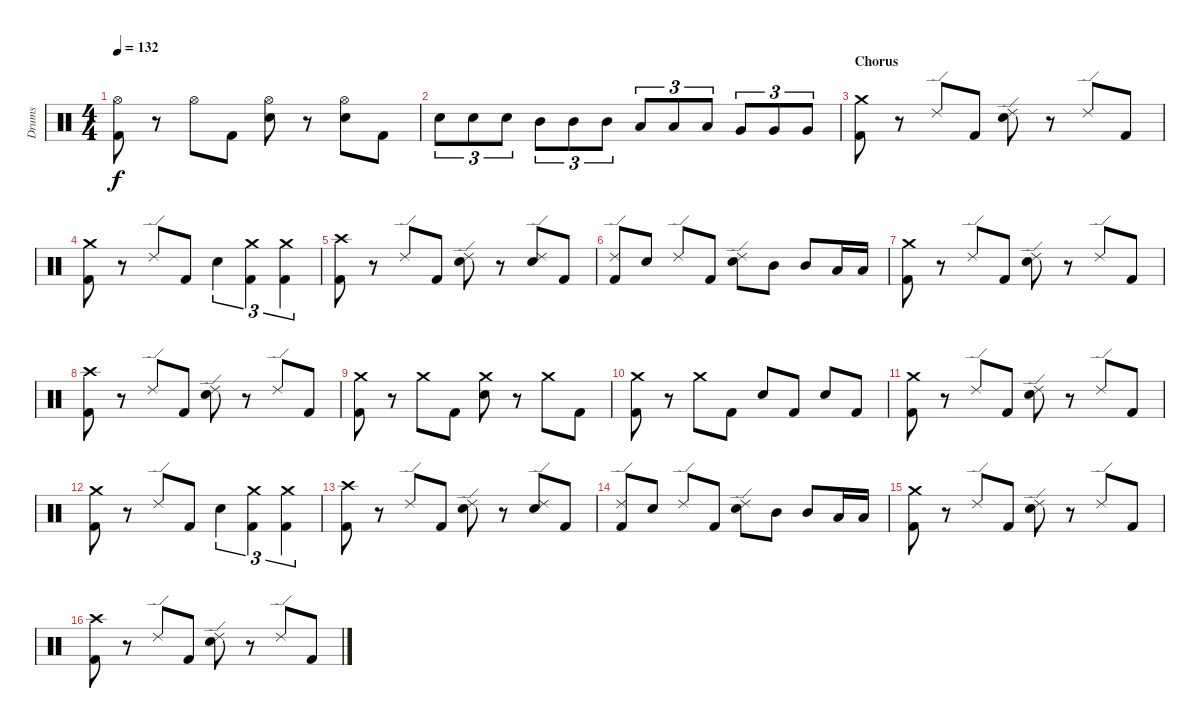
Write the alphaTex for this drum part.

\track ("Drums" "Drums") {instrument percussion}
\staff {score}
\articulation defaults
\ts (4 4)
\tempo 132
\clef neutral
\ks c
("Hi-Hat (open)" "Kick (hit) 2").8{dy f} r.8 "Hi-Hat (open)".8 "Kick (hit) 2".8 ("Hi-Hat (open)" "Snare (hit) 2").8 r.8 ("Hi-Hat (open)" "Snare (hit) 2").8 "Kick (hit) 2".8 |
"Snare (hit) 2".8{tu (3 2)} "Snare (hit) 2".8{tu (3 2)} "Snare (hit) 2".8{tu (3 2)} "Mid Tom (hit)".8{tu (3 2)} "Mid Tom (hit)".8{tu (3 2)} "Mid Tom (hit)".8{tu (3 2)} "Low Tom (hit)".8{tu (3 2)} "Low Tom (hit)".8{tu (3 2)} "Low Tom (hit)".8{tu (3 2)} "Very Low Tom (hit)".8{tu (3 2)} "Very Low Tom (hit)".8{tu (3 2)} "Very Low Tom (hit)".8{tu (3 2)} |
\section ("" "Chorus")
("Crash medium (hit)" "Kick (hit) 2").8 r.8 "Ride (edge) 2".8 "Kick (hit) 2".8 ("Ride (edge) 2" "Snare (hit) 2").8 r.8 "Ride (edge) 2".8 "Kick (hit) 2".8 |
("Crash medium (hit)" "Kick (hit) 2").8 r.8 "Ride (edge) 2".8 "Kick (hit) 2".8 "Snare (hit) 2".4{tu (3 2)} ("Crash medium (hit)" "Kick (hit) 2").4{tu (3 2)} ("Crash medium (hit)" "Kick (hit) 2").4{tu (3 2)} |
("Crash high (hit)" "Kick (hit) 2").8 r.8 "Ride (edge) 2".8 "Kick (hit) 2".8 ("Ride (edge) 2" "Snare (hit) 2").8 r.8 ("Ride (edge) 2" "Snare (hit) 2").8 "Kick (hit) 2".8 |
("Ride (edge) 2" "Kick (hit) 2").8 "Snare (hit) 2".8 "Ride (edge) 2".8 "Kick (hit) 2".8 ("Ride (edge) 2" "Snare (hit) 2").8 "Mid Tom (hit)".8 "Mid Tom (hit)".8 "Low Tom (hit)".16 "Low Tom (hit)".16 |
("Crash medium (hit)" "Kick (hit) 2").8 r.8 "Ride (edge) 2".8 "Kick (hit) 2".8 ("Ride (edge) 2" "Snare (hit) 2").8 r.8 "Ride (edge) 2".8 "Kick (hit) 2".8 |
("Crash high (hit)" "Kick (hit) 2").8 r.8 "Ride (edge) 2".8 "Kick (hit) 2".8 ("Ride (edge) 2" "Snare (hit) 2").8 r.8 "Ride (edge) 2".8 "Kick (hit) 2".8 |
("Crash medium (hit)" "Kick (hit) 2").8 r.8 "Crash medium (hit)".8 "Kick (hit) 2".8 ("Crash medium (hit)" "Snare (hit) 2").8 r.8 "Crash medium (hit)".8 "Kick (hit) 2".8 |
("Crash medium (hit)" "Kick (hit) 2").8 r.8 "Crash medium (hit)".8 "Kick (hit) 2".8 "Snare (hit) 2".8 "Kick (hit) 2".8 "Snare (hit) 2".8 "Kick (hit) 2".8 |
("Crash medium (hit)" "Kick (hit) 2").8 r.8 "Ride (edge) 2".8 "Kick (hit) 2".8 ("Ride (edge) 2" "Snare (hit) 2").8 r.8 "Ride (edge) 2".8 "Kick (hit) 2".8 |
("Crash medium (hit)" "Kick (hit) 2").8 r.8 "Ride (edge) 2".8 "Kick (hit) 2".8 "Snare (hit) 2".4{tu (3 2)} ("Crash medium (hit)" "Kick (hit) 2").4{tu (3 2)} ("Crash medium (hit)" "Kick (hit) 2").4{tu (3 2)} |
("Crash high (hit)" "Kick (hit) 2").8 r.8 "Ride (edge) 2".8 "Kick (hit) 2".8 ("Ride (edge) 2" "Snare (hit) 2").8 r.8 ("Ride (edge) 2" "Snare (hit) 2").8 "Kick (hit) 2".8 |
("Ride (edge) 2" "Kick (hit) 2").8 "Snare (hit) 2".8 "Ride (edge) 2".8 "Kick (hit) 2".8 ("Ride (edge) 2" "Snare (hit) 2").8 "Mid Tom (hit)".8 "Mid Tom (hit)".8 "Low Tom (hit)".16 "Low Tom (hit)".16 |
("Crash medium (hit)" "Kick (hit) 2").8 r.8 "Ride (edge) 2".8 "Kick (hit) 2".8 ("Ride (edge) 2" "Snare (hit) 2").8 r.8 "Ride (edge) 2".8 "Kick (hit) 2".8 |
("Crash high (hit)" "Kick (hit) 2").8 r.8 "Ride (edge) 2".8 "Kick (hit) 2".8 ("Ride (edge) 2" "Snare (hit) 2").8 r.8 "Ride (edge) 2".8 "Kick (hit) 2".8
